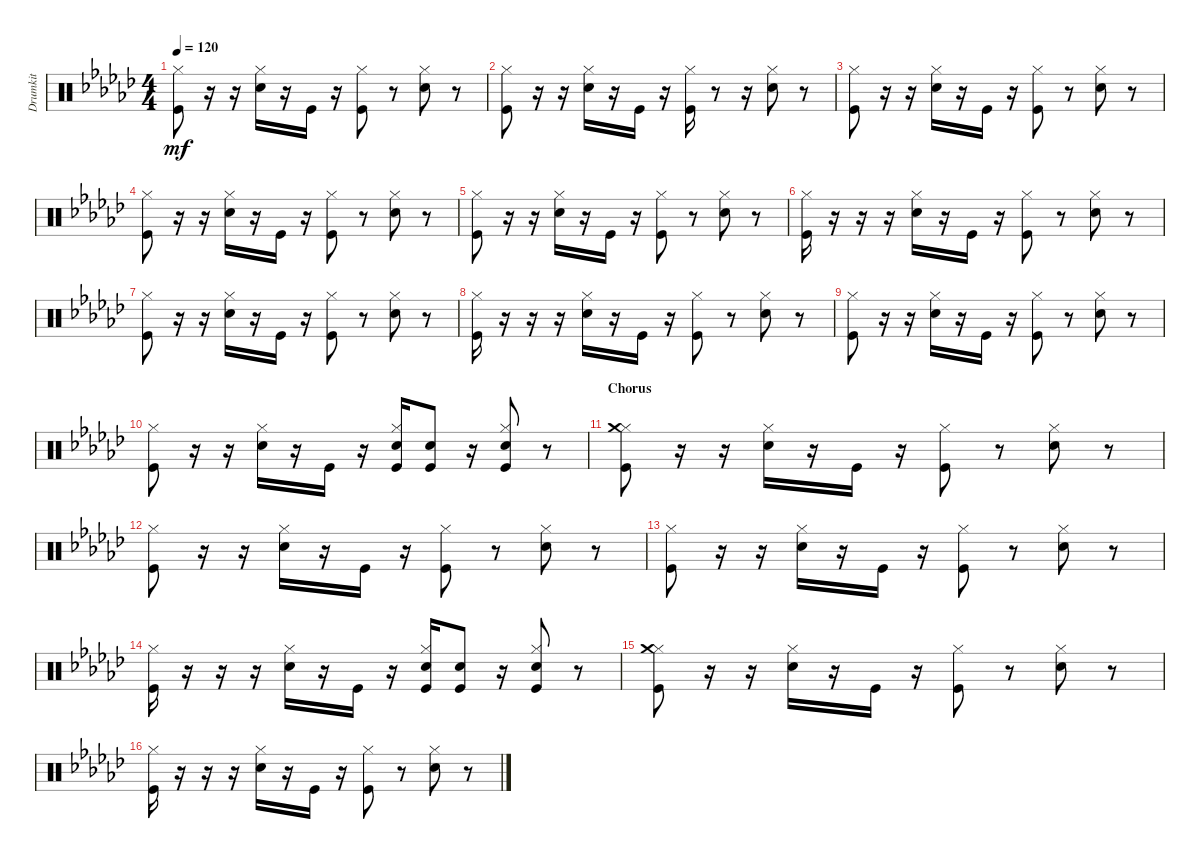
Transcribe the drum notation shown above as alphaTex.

\track ("Drumkit" "Drumkit") {instrument percussion}
\staff {score}
\articulation defaults
\ts (4 4)
\tempo 120
\clef neutral
\ks ebminor
("Kick (hit)" "Hi-Hat (closed)").8{dy mf} r.16 r.16 ("Snare (hit) 2" "Hi-Hat (closed)").16 r.16 "Kick (hit)".16 r.16 ("Kick (hit)" "Hi-Hat (closed)").8 r.8 ("Snare (hit) 2" "Hi-Hat (closed)").8 r.8 |
("Kick (hit)" "Hi-Hat (closed)").8 r.16 r.16 ("Snare (hit) 2" "Hi-Hat (closed)").16 r.16 "Kick (hit)".16 r.16 ("Kick (hit)" "Hi-Hat (closed)").16 r.8 r.16 ("Snare (hit) 2" "Hi-Hat (closed)").8 r.8 |
("Kick (hit)" "Hi-Hat (closed)").8 r.16 r.16 ("Snare (hit) 2" "Hi-Hat (closed)").16 r.16 "Kick (hit)".16 r.16 ("Kick (hit)" "Hi-Hat (closed)").8 r.8 ("Snare (hit) 2" "Hi-Hat (closed)").8 r.8 |
("Kick (hit)" "Hi-Hat (closed)").8 r.16 r.16 ("Snare (hit) 2" "Hi-Hat (closed)").16 r.16 "Kick (hit)".16 r.16 ("Kick (hit)" "Hi-Hat (closed)").8 r.8 ("Snare (hit) 2" "Hi-Hat (closed)").8 r.8 |
("Kick (hit)" "Hi-Hat (closed)").8 r.16 r.16 ("Snare (hit) 2" "Hi-Hat (closed)").16 r.16 "Kick (hit)".16 r.16 ("Kick (hit)" "Hi-Hat (closed)").8 r.8 ("Snare (hit) 2" "Hi-Hat (closed)").8 r.8 |
("Kick (hit)" "Hi-Hat (closed)").16 r.16 r.16 r.16 ("Snare (hit) 2" "Hi-Hat (closed)").16 r.16 "Kick (hit)".16 r.16 ("Kick (hit)" "Hi-Hat (closed)").8 r.8 ("Snare (hit) 2" "Hi-Hat (closed)").8 r.8 |
("Kick (hit)" "Hi-Hat (closed)").8 r.16 r.16 ("Snare (hit) 2" "Hi-Hat (closed)").16 r.16 "Kick (hit)".16 r.16 ("Kick (hit)" "Hi-Hat (closed)").8 r.8 ("Snare (hit) 2" "Hi-Hat (closed)").8 r.8 |
("Kick (hit)" "Hi-Hat (closed)").16 r.16 r.16 r.16 ("Snare (hit) 2" "Hi-Hat (closed)").16 r.16 "Kick (hit)".16 r.16 ("Kick (hit)" "Hi-Hat (closed)").8 r.8 ("Snare (hit) 2" "Hi-Hat (closed)").8 r.8 |
("Kick (hit)" "Hi-Hat (closed)").8 r.16 r.16 ("Snare (hit) 2" "Hi-Hat (closed)").16 r.16 "Kick (hit)".16 r.16 ("Kick (hit)" "Hi-Hat (closed)").8 r.8 ("Snare (hit) 2" "Hi-Hat (closed)").8 r.8 |
("Kick (hit)" "Hi-Hat (closed)").8 r.16 r.16 ("Snare (hit) 2" "Hi-Hat (closed)").16 r.16 "Kick (hit)".16 r.16 ("Kick (hit)" "Hi-Hat (closed)" "Snare (hit) 2").16 ("Kick (hit)" "Snare (hit) 2").8 r.16 ("Snare (hit) 2" "Hi-Hat (closed)" "Kick (hit)").8 r.8 |
\section ("" "Chorus")
("Kick (hit)" "Hi-Hat (closed)" "Crash medium (hit)").8 r.16 r.16 ("Snare (hit) 2" "Hi-Hat (closed)").16 r.16 "Kick (hit)".16 r.16 ("Kick (hit)" "Hi-Hat (closed)").8 r.8 ("Snare (hit) 2" "Hi-Hat (closed)").8 r.8 |
("Kick (hit)" "Hi-Hat (closed)").8 r.16 r.16 ("Snare (hit) 2" "Hi-Hat (closed)").16 r.16 "Kick (hit)".16 r.16 ("Kick (hit)" "Hi-Hat (closed)").8 r.8 ("Snare (hit) 2" "Hi-Hat (closed)").8 r.8 |
("Kick (hit)" "Hi-Hat (closed)").8 r.16 r.16 ("Snare (hit) 2" "Hi-Hat (closed)").16 r.16 "Kick (hit)".16 r.16 ("Kick (hit)" "Hi-Hat (closed)").8 r.8 ("Snare (hit) 2" "Hi-Hat (closed)").8 r.8 |
("Kick (hit)" "Hi-Hat (closed)").16 r.16 r.16 r.16 ("Snare (hit) 2" "Hi-Hat (closed)").16 r.16 "Kick (hit)".16 r.16 ("Kick (hit)" "Hi-Hat (closed)" "Snare (hit) 2").16 ("Kick (hit)" "Snare (hit) 2").8 r.16 ("Snare (hit) 2" "Hi-Hat (closed)" "Kick (hit)").8 r.8 |
("Kick (hit)" "Hi-Hat (closed)" "Crash medium (hit)").8 r.16 r.16 ("Snare (hit) 2" "Hi-Hat (closed)").16 r.16 "Kick (hit)".16 r.16 ("Kick (hit)" "Hi-Hat (closed)").8 r.8 ("Snare (hit) 2" "Hi-Hat (closed)").8 r.8 |
("Kick (hit)" "Hi-Hat (closed)").16 r.16 r.16 r.16 ("Snare (hit) 2" "Hi-Hat (closed)").16 r.16 "Kick (hit)".16 r.16 ("Kick (hit)" "Hi-Hat (closed)").8 r.8 ("Snare (hit) 2" "Hi-Hat (closed)").8 r.8
